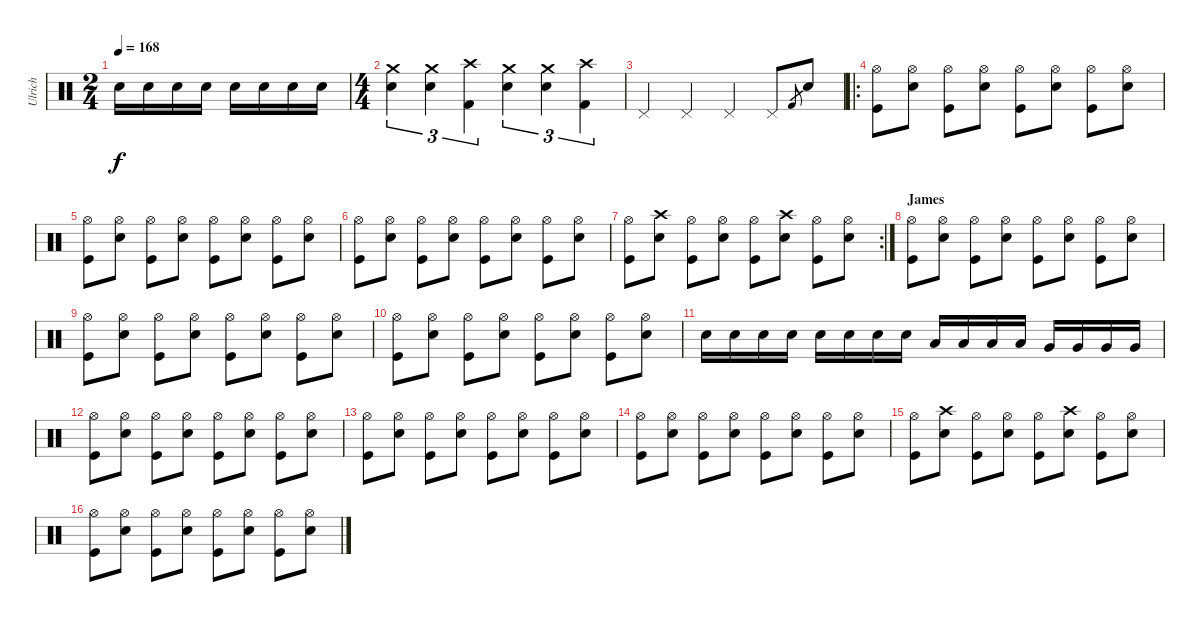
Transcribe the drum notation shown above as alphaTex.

\track ("Ulrich" "Ulrich") {instrument percussion}
\staff {score}
\articulation defaults
\ts (2 4)
\tempo 168
\clef neutral
\ks c "Snare (hit) 2".16{dy f} "Snare (hit) 2".16 "Snare (hit) 2".16 "Snare (hit) 2".16 "Snare (hit) 2".16 "Snare (hit) 2".16 "Snare (hit) 2".16 "Snare (hit) 2".16
|
\ts (4 4)
("Crash medium (hit)" "Snare (hit) 2").4{tu (3 2)} ("Crash medium (hit)" "Snare (hit) 2").4{tu (3 2)} ("Crash high (hit)" "Kick (hit) 2").4{tu (3 2)} ("Crash medium (hit)" "Snare (hit) 2").4{tu (3 2)} ("Crash medium (hit)" "Snare (hit) 2").4{tu (3 2)} ("Crash high (hit)" "Kick (hit) 2").4{tu (3 2)} |
"Pedal Hi-Hat (hit)".4 "Pedal Hi-Hat (hit)".4 "Pedal Hi-Hat (hit)".4 "Pedal Hi-Hat (hit)".8 "Kick (hit) 2".8{gr} "Snare (hit) 2".8 |
\ro
("Hi-Hat (open)" "Kick (hit)").8 ("Hi-Hat (open)" "Snare (hit) 2").8 ("Hi-Hat (open)" "Kick (hit)").8 ("Hi-Hat (open)" "Snare (hit) 2").8 ("Hi-Hat (open)" "Kick (hit)").8 ("Hi-Hat (open)" "Snare (hit) 2").8 ("Hi-Hat (open)" "Kick (hit)").8 ("Hi-Hat (open)" "Snare (hit) 2").8 |
("Hi-Hat (open)" "Kick (hit)").8 ("Hi-Hat (open)" "Snare (hit) 2").8 ("Hi-Hat (open)" "Kick (hit)").8 ("Hi-Hat (open)" "Snare (hit) 2").8 ("Hi-Hat (open)" "Kick (hit)").8 ("Hi-Hat (open)" "Snare (hit) 2").8 ("Hi-Hat (open)" "Kick (hit)").8 ("Hi-Hat (open)" "Snare (hit) 2").8 |
("Hi-Hat (open)" "Kick (hit)").8 ("Hi-Hat (open)" "Snare (hit) 2").8 ("Hi-Hat (open)" "Kick (hit)").8 ("Hi-Hat (open)" "Snare (hit) 2").8 ("Hi-Hat (open)" "Kick (hit)").8 ("Hi-Hat (open)" "Snare (hit) 2").8 ("Hi-Hat (open)" "Kick (hit)").8 ("Hi-Hat (open)" "Snare (hit) 2").8 |
\rc 2
("Hi-Hat (open)" "Kick (hit)").8 ("Crash high (hit)" "Snare (hit) 2").8 ("Hi-Hat (open)" "Kick (hit)").8 ("Hi-Hat (open)" "Snare (hit) 2").8 ("Hi-Hat (open)" "Kick (hit)").8 ("Crash high (hit)" "Snare (hit) 2").8 ("Hi-Hat (open)" "Kick (hit)").8 ("Hi-Hat (open)" "Snare (hit) 2").8 |
\section ("" "James")
("Hi-Hat (open)" "Kick (hit)").8 ("Hi-Hat (open)" "Snare (hit) 2").8 ("Hi-Hat (open)" "Kick (hit)").8 ("Hi-Hat (open)" "Snare (hit) 2").8 ("Hi-Hat (open)" "Kick (hit)").8 ("Hi-Hat (open)" "Snare (hit) 2").8 ("Hi-Hat (open)" "Kick (hit)").8 ("Hi-Hat (open)" "Snare (hit) 2").8 |
("Hi-Hat (open)" "Kick (hit)").8 ("Hi-Hat (open)" "Snare (hit) 2").8 ("Hi-Hat (open)" "Kick (hit)").8 ("Hi-Hat (open)" "Snare (hit) 2").8 ("Hi-Hat (open)" "Kick (hit)").8 ("Hi-Hat (open)" "Snare (hit) 2").8 ("Hi-Hat (open)" "Kick (hit)").8 ("Hi-Hat (open)" "Snare (hit) 2").8 |
("Hi-Hat (open)" "Kick (hit)").8 ("Hi-Hat (open)" "Snare (hit) 2").8 ("Hi-Hat (open)" "Kick (hit)").8 ("Hi-Hat (open)" "Snare (hit) 2").8 ("Hi-Hat (open)" "Kick (hit)").8 ("Hi-Hat (open)" "Snare (hit) 2").8 ("Hi-Hat (open)" "Kick (hit)").8 ("Hi-Hat (open)" "Snare (hit) 2").8 |
"Snare (hit) 2".16 "Snare (hit) 2".16 "Snare (hit) 2".16 "Snare (hit) 2".16 "Snare (hit) 2".16 "Snare (hit) 2".16 "Snare (hit) 2".16 "Snare (hit) 2".16 "Low Tom (hit)".16 "Low Tom (hit)".16 "Low Tom (hit)".16 "Low Tom (hit)".16 "Very Low Tom (hit)".16 "Very Low Tom (hit)".16 "Very Low Tom (hit)".16 "Very Low Tom (hit)".16 |
("Hi-Hat (open)" "Kick (hit)").8 ("Hi-Hat (open)" "Snare (hit) 2").8 ("Hi-Hat (open)" "Kick (hit)").8 ("Hi-Hat (open)" "Snare (hit) 2").8 ("Hi-Hat (open)" "Kick (hit)").8 ("Hi-Hat (open)" "Snare (hit) 2").8 ("Hi-Hat (open)" "Kick (hit)").8 ("Hi-Hat (open)" "Snare (hit) 2").8 |
("Hi-Hat (open)" "Kick (hit)").8 ("Hi-Hat (open)" "Snare (hit) 2").8 ("Hi-Hat (open)" "Kick (hit)").8 ("Hi-Hat (open)" "Snare (hit) 2").8 ("Hi-Hat (open)" "Kick (hit)").8 ("Hi-Hat (open)" "Snare (hit) 2").8 ("Hi-Hat (open)" "Kick (hit)").8 ("Hi-Hat (open)" "Snare (hit) 2").8 |
("Hi-Hat (open)" "Kick (hit)").8 ("Hi-Hat (open)" "Snare (hit) 2").8 ("Hi-Hat (open)" "Kick (hit)").8 ("Hi-Hat (open)" "Snare (hit) 2").8 ("Hi-Hat (open)" "Kick (hit)").8 ("Hi-Hat (open)" "Snare (hit) 2").8 ("Hi-Hat (open)" "Kick (hit)").8 ("Hi-Hat (open)" "Snare (hit) 2").8 |
("Hi-Hat (open)" "Kick (hit)").8 ("Crash high (hit)" "Snare (hit) 2").8 ("Hi-Hat (open)" "Kick (hit)").8 ("Hi-Hat (open)" "Snare (hit) 2").8 ("Hi-Hat (open)" "Kick (hit)").8 ("Crash high (hit)" "Snare (hit) 2").8 ("Hi-Hat (open)" "Kick (hit)").8 ("Hi-Hat (open)" "Snare (hit) 2").8 |
("Hi-Hat (open)" "Kick (hit)").8 ("Hi-Hat (open)" "Snare (hit) 2").8 ("Hi-Hat (open)" "Kick (hit)").8 ("Hi-Hat (open)" "Snare (hit) 2").8 ("Hi-Hat (open)" "Kick (hit)").8 ("Hi-Hat (open)" "Snare (hit) 2").8 ("Hi-Hat (open)" "Kick (hit)").8 ("Hi-Hat (open)" "Snare (hit) 2").8
